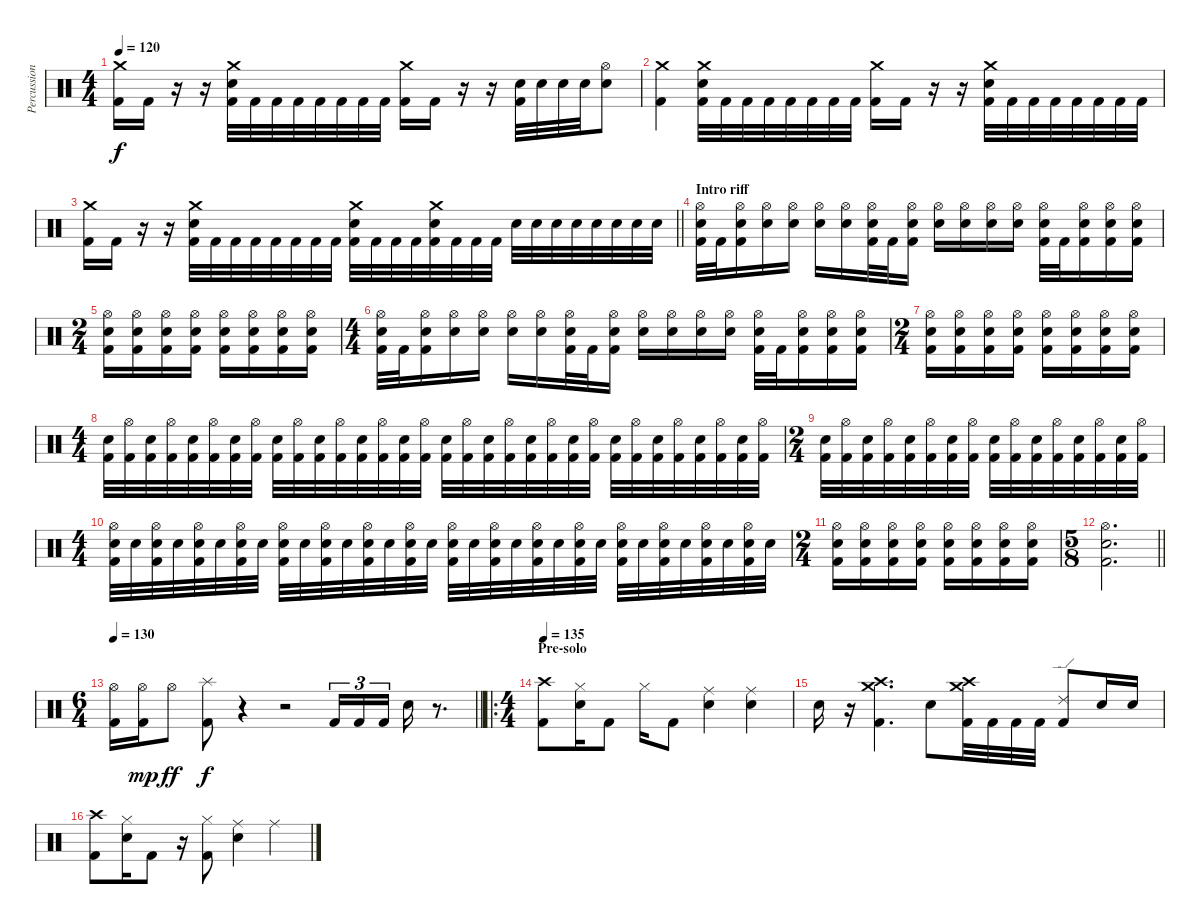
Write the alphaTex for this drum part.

\track ("Percussion" "Percussion") {instrument percussion}
\staff {score}
\articulation defaults
\ts (4 4)
\tempo 120
\clef neutral
\ks c
("Crash medium (hit)" "Kick (hit) 2").16{dy f} "Kick (hit) 2".16 r.16 r.16 ("Crash medium (hit)" "Electric Snare (hit)" "Kick (hit) 2").32 "Kick (hit) 2".32 "Kick (hit) 2".32 "Kick (hit) 2".32 "Kick (hit) 2".32 "Kick (hit) 2".32 "Kick (hit) 2".32 "Kick (hit) 2".32 ("Crash medium (hit)" "Kick (hit) 2").16 "Kick (hit) 2".16 r.16 r.16 ("Electric Snare (hit)" "Kick (hit) 2").32 "Electric Snare (hit)".32 "Electric Snare (hit)".32 "Electric Snare (hit)".32 ("Hi-Hat (open)" "Electric Snare (hit)").8 |
("Crash medium (hit)" "Kick (hit) 2").4 ("Crash medium (hit)" "Electric Snare (hit)" "Kick (hit) 2").32 "Kick (hit) 2".32 "Kick (hit) 2".32 "Kick (hit) 2".32 "Kick (hit) 2".32 "Kick (hit) 2".32 "Kick (hit) 2".32 "Kick (hit) 2".32 ("Crash medium (hit)" "Kick (hit) 2").16 "Kick (hit) 2".16 r.16 r.16 ("Crash medium (hit)" "Electric Snare (hit)" "Kick (hit) 2").32 "Kick (hit) 2".32 "Kick (hit) 2".32 "Kick (hit) 2".32 "Kick (hit) 2".32 "Kick (hit) 2".32 "Kick (hit) 2".32 "Kick (hit) 2".32 |
\barLineRight lightlight
("Crash medium (hit)" "Kick (hit) 2").16 "Kick (hit) 2".16 r.16 r.16 ("Crash medium (hit)" "Electric Snare (hit)" "Kick (hit) 2").32 "Kick (hit) 2".32 "Kick (hit) 2".32 "Kick (hit) 2".32 "Kick (hit) 2".32 "Kick (hit) 2".32 "Kick (hit) 2".32 "Kick (hit) 2".32 ("Crash medium (hit)" "Electric Snare (hit)" "Kick (hit) 2").32 "Kick (hit) 2".32 "Kick (hit) 2".32 "Kick (hit) 2".32 ("Crash medium (hit)" "Electric Snare (hit)" "Kick (hit) 2").32 "Kick (hit) 2".32 "Kick (hit) 2".32 "Kick (hit) 2".32 "Electric Snare (hit)".32 "Electric Snare (hit)".32 "Electric Snare (hit)".32 "Electric Snare (hit)".32 "Electric Snare (hit)".32 "Electric Snare (hit)".32 "Electric Snare (hit)".32 "Electric Snare (hit)".32 |
\section ("" "Intro riff")
("Hi-Hat (open)" "Electric Snare (hit)" "Kick (hit) 2").32 "Kick (hit) 2".32 ("Hi-Hat (open)" "Electric Snare (hit)" "Kick (hit) 2").16 ("Hi-Hat (open)" "Electric Snare (hit)").16 ("Hi-Hat (open)" "Electric Snare (hit)").16 ("Hi-Hat (open)" "Electric Snare (hit)").16 ("Hi-Hat (open)" "Electric Snare (hit)").16 ("Hi-Hat (open)" "Electric Snare (hit)" "Kick (hit) 2").32 "Kick (hit) 2".32 ("Hi-Hat (open)" "Electric Snare (hit)" "Kick (hit) 2").16 ("Hi-Hat (open)" "Electric Snare (hit)").16 ("Hi-Hat (open)" "Electric Snare (hit)").16 ("Hi-Hat (open)" "Electric Snare (hit)").16 ("Hi-Hat (open)" "Electric Snare (hit)").16 ("Hi-Hat (open)" "Electric Snare (hit)" "Kick (hit) 2").32 "Kick (hit) 2".32 ("Hi-Hat (open)" "Electric Snare (hit)" "Kick (hit) 2").16 ("Hi-Hat (open)" "Electric Snare (hit)" "Kick (hit) 2").16 ("Hi-Hat (open)" "Electric Snare (hit)" "Kick (hit) 2").16 |
\ts (2 4)
("Hi-Hat (open)" "Electric Snare (hit)" "Kick (hit) 2").16 ("Hi-Hat (open)" "Electric Snare (hit)" "Kick (hit) 2").16 ("Hi-Hat (open)" "Electric Snare (hit)" "Kick (hit) 2").16 ("Hi-Hat (open)" "Electric Snare (hit)" "Kick (hit) 2").16 ("Hi-Hat (open)" "Electric Snare (hit)" "Kick (hit) 2").16 ("Hi-Hat (open)" "Electric Snare (hit)" "Kick (hit) 2").16 ("Hi-Hat (open)" "Electric Snare (hit)" "Kick (hit) 2").16 ("Hi-Hat (open)" "Electric Snare (hit)" "Kick (hit) 2").16 |
\ts (4 4)
("Hi-Hat (open)" "Electric Snare (hit)" "Kick (hit) 2").32 "Kick (hit) 2".32 ("Hi-Hat (open)" "Electric Snare (hit)" "Kick (hit) 2").16 ("Hi-Hat (open)" "Electric Snare (hit)").16 ("Hi-Hat (open)" "Electric Snare (hit)").16 ("Hi-Hat (open)" "Electric Snare (hit)").16 ("Hi-Hat (open)" "Electric Snare (hit)").16 ("Hi-Hat (open)" "Electric Snare (hit)" "Kick (hit) 2").32 "Kick (hit) 2".32 ("Hi-Hat (open)" "Electric Snare (hit)" "Kick (hit) 2").16 ("Hi-Hat (open)" "Electric Snare (hit)").16 ("Hi-Hat (open)" "Electric Snare (hit)").16 ("Hi-Hat (open)" "Electric Snare (hit)").16 ("Hi-Hat (open)" "Electric Snare (hit)").16 ("Hi-Hat (open)" "Electric Snare (hit)" "Kick (hit) 2").32 "Kick (hit) 2".32 ("Hi-Hat (open)" "Electric Snare (hit)" "Kick (hit) 2").16 ("Hi-Hat (open)" "Electric Snare (hit)" "Kick (hit) 2").16 ("Hi-Hat (open)" "Electric Snare (hit)" "Kick (hit) 2").16 |
\ts (2 4)
("Hi-Hat (open)" "Electric Snare (hit)" "Kick (hit) 2").16 ("Hi-Hat (open)" "Electric Snare (hit)" "Kick (hit) 2").16 ("Hi-Hat (open)" "Electric Snare (hit)" "Kick (hit) 2").16 ("Hi-Hat (open)" "Electric Snare (hit)" "Kick (hit) 2").16 ("Hi-Hat (open)" "Electric Snare (hit)" "Kick (hit) 2").16 ("Hi-Hat (open)" "Electric Snare (hit)" "Kick (hit) 2").16 ("Hi-Hat (open)" "Electric Snare (hit)" "Kick (hit) 2").16 ("Hi-Hat (open)" "Electric Snare (hit)" "Kick (hit) 2").16 |
\ts (4 4)
("Electric Snare (hit)" "Kick (hit) 2").32 ("Hi-Hat (open)" "Kick (hit) 2").32 ("Electric Snare (hit)" "Kick (hit) 2").32 ("Hi-Hat (open)" "Kick (hit) 2").32 ("Electric Snare (hit)" "Kick (hit) 2").32 ("Hi-Hat (open)" "Kick (hit) 2").32 ("Electric Snare (hit)" "Kick (hit) 2").32 ("Hi-Hat (open)" "Kick (hit) 2").32 ("Electric Snare (hit)" "Kick (hit) 2").32 ("Hi-Hat (open)" "Kick (hit) 2").32 ("Electric Snare (hit)" "Kick (hit) 2").32 ("Hi-Hat (open)" "Kick (hit) 2").32 ("Electric Snare (hit)" "Kick (hit) 2").32 ("Hi-Hat (open)" "Kick (hit) 2").32 ("Electric Snare (hit)" "Kick (hit) 2").32 ("Hi-Hat (open)" "Kick (hit) 2").32 ("Electric Snare (hit)" "Kick (hit) 2").32 ("Hi-Hat (open)" "Kick (hit) 2").32 ("Electric Snare (hit)" "Kick (hit) 2").32 ("Hi-Hat (open)" "Kick (hit) 2").32 ("Electric Snare (hit)" "Kick (hit) 2").32 ("Hi-Hat (open)" "Kick (hit) 2").32 ("Electric Snare (hit)" "Kick (hit) 2").32 ("Hi-Hat (open)" "Kick (hit) 2").32 ("Electric Snare (hit)" "Kick (hit) 2").32 ("Hi-Hat (open)" "Kick (hit) 2").32 ("Electric Snare (hit)" "Kick (hit) 2").32 ("Hi-Hat (open)" "Kick (hit) 2").32 ("Electric Snare (hit)" "Kick (hit) 2").32 ("Hi-Hat (open)" "Kick (hit) 2").32 ("Electric Snare (hit)" "Kick (hit) 2").32 ("Hi-Hat (open)" "Kick (hit) 2").32 |
\ts (2 4)
("Electric Snare (hit)" "Kick (hit) 2").32 ("Hi-Hat (open)" "Kick (hit) 2").32 ("Electric Snare (hit)" "Kick (hit) 2").32 ("Hi-Hat (open)" "Kick (hit) 2").32 ("Electric Snare (hit)" "Kick (hit) 2").32 ("Hi-Hat (open)" "Kick (hit) 2").32 ("Electric Snare (hit)" "Kick (hit) 2").32 ("Hi-Hat (open)" "Kick (hit) 2").32 ("Electric Snare (hit)" "Kick (hit) 2").32 ("Hi-Hat (open)" "Kick (hit) 2").32 ("Electric Snare (hit)" "Kick (hit) 2").32 ("Hi-Hat (open)" "Kick (hit) 2").32 ("Electric Snare (hit)" "Kick (hit) 2").32 ("Hi-Hat (open)" "Kick (hit) 2").32 ("Electric Snare (hit)" "Kick (hit) 2").32 ("Hi-Hat (open)" "Kick (hit) 2").32 |
\ts (4 4)
("Hi-Hat (open)" "Electric Snare (hit)" "Kick (hit) 2").32 "Electric Snare (hit)".32 ("Hi-Hat (open)" "Electric Snare (hit)" "Kick (hit) 2").32 "Electric Snare (hit)".32 ("Hi-Hat (open)" "Electric Snare (hit)" "Kick (hit) 2").32 "Electric Snare (hit)".32 ("Hi-Hat (open)" "Electric Snare (hit)" "Kick (hit) 2").32 "Electric Snare (hit)".32 ("Hi-Hat (open)" "Electric Snare (hit)" "Kick (hit) 2").32 "Electric Snare (hit)".32 ("Hi-Hat (open)" "Electric Snare (hit)" "Kick (hit) 2").32 "Electric Snare (hit)".32 ("Hi-Hat (open)" "Electric Snare (hit)" "Kick (hit) 2").32 "Electric Snare (hit)".32 ("Hi-Hat (open)" "Electric Snare (hit)" "Kick (hit) 2").32 "Electric Snare (hit)".32 ("Hi-Hat (open)" "Electric Snare (hit)" "Kick (hit) 2").32 "Electric Snare (hit)".32 ("Hi-Hat (open)" "Electric Snare (hit)" "Kick (hit) 2").32 "Electric Snare (hit)".32 ("Hi-Hat (open)" "Electric Snare (hit)" "Kick (hit) 2").32 "Electric Snare (hit)".32 ("Hi-Hat (open)" "Electric Snare (hit)" "Kick (hit) 2").32 "Electric Snare (hit)".32 ("Hi-Hat (open)" "Electric Snare (hit)" "Kick (hit) 2").32 "Electric Snare (hit)".32 ("Hi-Hat (open)" "Electric Snare (hit)" "Kick (hit) 2").32 "Electric Snare (hit)".32 ("Hi-Hat (open)" "Electric Snare (hit)" "Kick (hit) 2").32 "Electric Snare (hit)".32 ("Hi-Hat (open)" "Electric Snare (hit)" "Kick (hit) 2").32 "Electric Snare (hit)".32 |
\ts (2 4)
("Hi-Hat (open)" "Electric Snare (hit)" "Kick (hit) 2").16 ("Hi-Hat (open)" "Electric Snare (hit)" "Kick (hit) 2").16 ("Hi-Hat (open)" "Electric Snare (hit)" "Kick (hit) 2").16 ("Hi-Hat (open)" "Electric Snare (hit)" "Kick (hit) 2").16 ("Hi-Hat (open)" "Electric Snare (hit)" "Kick (hit) 2").16 ("Hi-Hat (open)" "Electric Snare (hit)" "Kick (hit) 2").16 ("Hi-Hat (open)" "Electric Snare (hit)" "Kick (hit) 2").16 ("Hi-Hat (open)" "Electric Snare (hit)" "Kick (hit) 2").16 |
\ts (5 8)
\barLineRight lightlight
("Hi-Hat (open)" "Electric Snare (hit)" "Kick (hit) 2").2{d} |
\ts (6 4)
\tempo 130
\barLineRight lightlight
("Hi-Hat (open)" "Kick (hit) 2").16 ("Hi-Hat (open)" "Kick (hit) 2").16{dy mp} "Hi-Hat (open)".8{dy ff} ("Splash (hit)" "Kick (hit) 2").8{dy f} r.4 r.2 "Kick (hit) 2".16{tu (3 2)} "Kick (hit) 2".16{tu (3 2)} "Kick (hit) 2".16{tu (3 2) beam splitsecondary} "Electric Snare (hit)".16 r.8{d} |
\ro
\ts (4 4)
\section ("" "Pre-solo")
\tempo 135
("Crash high (hit)" "Kick (hit) 2").8 ("Hi-Hat (closed)" "Electric Snare (hit)").16 "Kick (hit) 2".8 "Hi-Hat (closed)".16 "Kick (hit) 2".8 ("Ride (middle)" "Electric Snare (hit)").4 ("Ride (middle)" "Electric Snare (hit)").4 |
"Electric Snare (hit)".16 r.16 ("Crash high (hit)" "Crash medium (hit)" "Kick (hit) 2").4{d} "Electric Snare (hit)".8 ("Crash high (hit)" "Crash medium (hit)" "Kick (hit) 2").32 "Kick (hit) 2".32 "Kick (hit) 2".32 "Kick (hit) 2".32 ("Ride (edge) 2" "Kick (hit) 2").8 "Electric Snare (hit)".16 "Electric Snare (hit)".16 |
("Crash high (hit)" "Kick (hit) 2").8 ("Hi-Hat (closed)" "Electric Snare (hit)").16 "Kick (hit) 2".8 r.16 ("Hi-Hat (closed)" "Kick (hit) 2").8 ("Ride (middle)" "Electric Snare (hit)").4 "Ride (middle)".4
